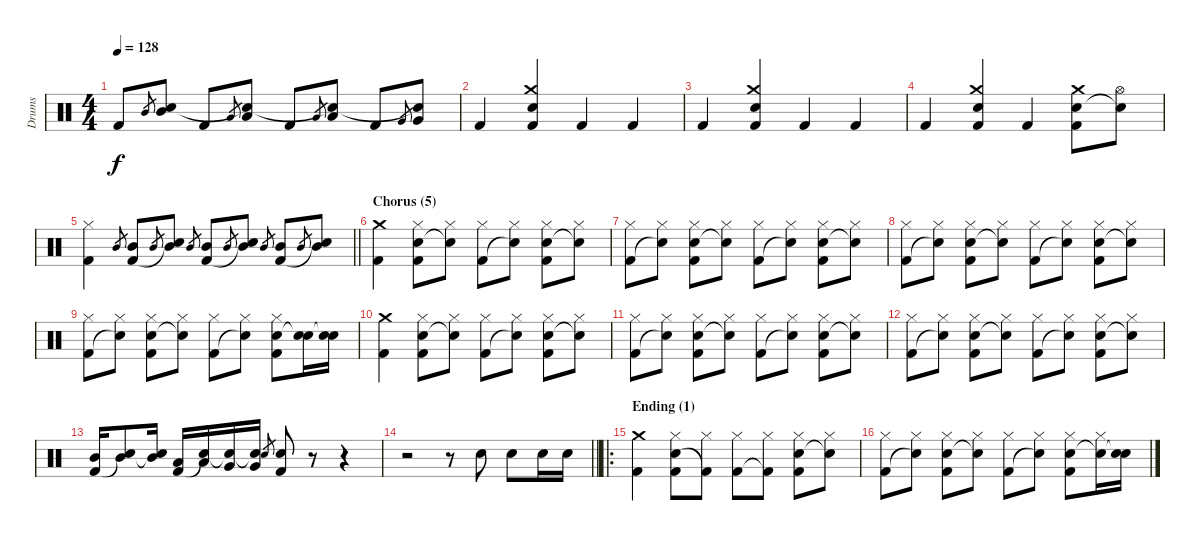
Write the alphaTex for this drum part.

\track ("Drums" "Drums") {instrument percussion}
\staff {score}
\articulation defaults
\ts (4 4)
\tempo 128
\clef neutral
\ks aminor "Kick (hit) 2".8{dy f} "Mid Tom (hit)".8{gr}
("Mid Tom (hit)" "Snare (hit)"{t}).8 "Kick (hit) 2".8 "Low Tom (hit)".8{gr} ("Low Tom (hit)" "Snare (hit)"{t}).8 "Kick (hit) 2".8 "Low Tom (hit)".8{gr} ("Low Tom (hit)" "Snare (hit)"{t}).8 "Kick (hit) 2".8 "Very Low Tom (hit)".8{gr} ("Very Low Tom (hit)" "Snare (hit)"{t}).8 |
"Kick (hit) 2".4 ("Crash medium (hit)" "Electric Snare (hit)" "Kick (hit) 2").4 "Kick (hit) 2".4 "Kick (hit) 2".4 |
"Kick (hit) 2".4 ("Crash medium (hit)" "Electric Snare (hit)" "Kick (hit) 2").4 "Kick (hit) 2".4 "Kick (hit) 2".4 |
"Kick (hit) 2".4 ("Crash medium (hit)" "Electric Snare (hit)" "Kick (hit) 2").4 "Kick (hit) 2".4 ("Crash medium (hit)" "Electric Snare (hit)" "Kick (hit) 2").8 ("Hi-Hat (open)" "Snare (hit)"{t}).8 |
\barLineRight lightlight
("Hi-Hat (closed)" "Kick (hit) 2").4 "Mid Tom (hit)".8{gr} ("Mid Tom (hit)" "Kick (hit) 2").8 "Mid Tom (hit)".8{gr} ("Mid Tom (hit)" "Snare (hit)"{t}).8 "Mid Tom (hit)".8{gr} ("Mid Tom (hit)" "Kick (hit) 2").8 "Mid Tom (hit)".8{gr} ("Mid Tom (hit)" "Snare (hit)"{t}).8 "Mid Tom (hit)".8{gr} ("Mid Tom (hit)" "Kick (hit) 2").8 "Mid Tom (hit)".8{gr} ("Mid Tom (hit)" "Snare (hit)"{t}).8 |
\section ("" "Chorus (5)")
("Crash medium (hit)" "Kick (hit) 2").4 ("Hi-Hat (closed)" "Electric Snare (hit)" "Kick (hit) 2").8 ("Hi-Hat (closed)" "Snare (hit)"{t}).8 ("Hi-Hat (closed)" "Kick (hit) 2").8 ("Hi-Hat (closed)" "Snare (hit)"{t}).8 ("Hi-Hat (closed)" "Electric Snare (hit)" "Kick (hit) 2").8 ("Hi-Hat (closed)" "Snare (hit)"{t}).8 |
("Hi-Hat (closed)" "Kick (hit) 2").8 ("Hi-Hat (closed)" "Snare (hit)"{t}).8 ("Hi-Hat (closed)" "Electric Snare (hit)" "Kick (hit) 2").8 ("Hi-Hat (closed)" "Snare (hit)"{t}).8 ("Hi-Hat (closed)" "Kick (hit) 2").8 ("Hi-Hat (closed)" "Snare (hit)"{t}).8 ("Hi-Hat (closed)" "Electric Snare (hit)" "Kick (hit) 2").8 ("Hi-Hat (closed)" "Snare (hit)"{t}).8 |
("Hi-Hat (closed)" "Kick (hit) 2").8 ("Hi-Hat (closed)" "Snare (hit)"{t}).8 ("Hi-Hat (closed)" "Electric Snare (hit)" "Kick (hit) 2").8 ("Hi-Hat (closed)" "Snare (hit)"{t}).8 ("Hi-Hat (closed)" "Kick (hit) 2").8 ("Hi-Hat (closed)" "Snare (hit)"{t}).8 ("Hi-Hat (closed)" "Electric Snare (hit)" "Kick (hit) 2").8 ("Hi-Hat (closed)" "Snare (hit)"{t}).8 |
("Hi-Hat (closed)" "Kick (hit) 2").8 ("Hi-Hat (closed)" "Snare (hit)"{t}).8 ("Hi-Hat (closed)" "Electric Snare (hit)" "Kick (hit) 2").8 ("Hi-Hat (closed)" "Snare (hit)"{t}).8 ("Hi-Hat (closed)" "Kick (hit) 2").8 ("Hi-Hat (closed)" "Snare (hit)"{t}).8 ("Hi-Hat (closed)" "Electric Snare (hit)" "Kick (hit) 2").8 ("Electric Snare (hit)" "Snare (hit)"{t}).16 ("Electric Snare (hit)" "Snare (hit)"{t}).16 |
("Crash medium (hit)" "Kick (hit) 2").4 ("Hi-Hat (closed)" "Electric Snare (hit)" "Kick (hit) 2").8 ("Hi-Hat (closed)" "Snare (hit)"{t}).8 ("Hi-Hat (closed)" "Kick (hit) 2").8 ("Hi-Hat (closed)" "Snare (hit)"{t}).8 ("Hi-Hat (closed)" "Electric Snare (hit)" "Kick (hit) 2").8 ("Hi-Hat (closed)" "Snare (hit)"{t}).8 |
("Hi-Hat (closed)" "Kick (hit) 2").8 ("Hi-Hat (closed)" "Snare (hit)"{t}).8 ("Hi-Hat (closed)" "Electric Snare (hit)" "Kick (hit) 2").8 ("Hi-Hat (closed)" "Snare (hit)"{t}).8 ("Hi-Hat (closed)" "Kick (hit) 2").8 ("Hi-Hat (closed)" "Snare (hit)"{t}).8 ("Hi-Hat (closed)" "Electric Snare (hit)" "Kick (hit) 2").8 ("Hi-Hat (closed)" "Snare (hit)"{t}).8 |
("Hi-Hat (closed)" "Kick (hit) 2").8 ("Hi-Hat (closed)" "Snare (hit)"{t}).8 ("Hi-Hat (closed)" "Electric Snare (hit)" "Kick (hit) 2").8 ("Hi-Hat (closed)" "Snare (hit)"{t}).8 ("Hi-Hat (closed)" "Kick (hit) 2").8 ("Hi-Hat (closed)" "Snare (hit)"{t}).8 ("Hi-Hat (closed)" "Electric Snare (hit)" "Kick (hit) 2").8 ("Hi-Hat (closed)" "Snare (hit)"{t}).8 |
("Mid Tom (hit)" "Kick (hit) 2").16 ("Mid Tom (hit)" "Snare (hit)"{t}).8 ("Mid Tom (hit)" "Snare (hit)"{t}).16 ("Low Tom (hit)" "Kick (hit) 2").16 ("Low Tom (hit)" "Snare (hit)"{t}).16 ("Very Low Tom (hit)" "Snare (hit)"{t}).16 ("Very Low Tom (hit)" "Snare (hit)"{t}).16 "Electric Snare (hit)".8{gr} ("Electric Snare (hit)" "Kick (hit) 2").8 r.8 r.4 |
\barLineRight lightlight
r.2 r.8 "Electric Snare (hit)".8 "Electric Snare (hit)".8 "Electric Snare (hit)".16 "Electric Snare (hit)".16 |
\ro
\section ("" "Ending (1)")
("Crash medium (hit)" "Kick (hit) 2").4 ("Hi-Hat (closed)" "Electric Snare (hit)" "Kick (hit) 2").8 ("Hi-Hat (closed)" "Kick (hit) 2"{t}).8 ("Hi-Hat (closed)" "Kick (hit) 2").8 ("Hi-Hat (closed)" "Kick (hit) 2"{t}).8 ("Hi-Hat (closed)" "Electric Snare (hit)" "Kick (hit) 2").8 ("Hi-Hat (closed)" "Snare (hit)"{t}).8 |
("Hi-Hat (closed)" "Kick (hit) 2").8 ("Hi-Hat (closed)" "Snare (hit)"{t}).8 ("Hi-Hat (closed)" "Electric Snare (hit)" "Kick (hit) 2").8 ("Hi-Hat (closed)" "Snare (hit)"{t}).8 ("Hi-Hat (closed)" "Kick (hit) 2").8 ("Hi-Hat (closed)" "Snare (hit)"{t}).8 ("Hi-Hat (closed)" "Electric Snare (hit)" "Kick (hit) 2").8 ("Hi-Hat (closed)" "Snare (hit)"{t}).16 ("Electric Snare (hit)" "Snare (hit)"{t}).16
